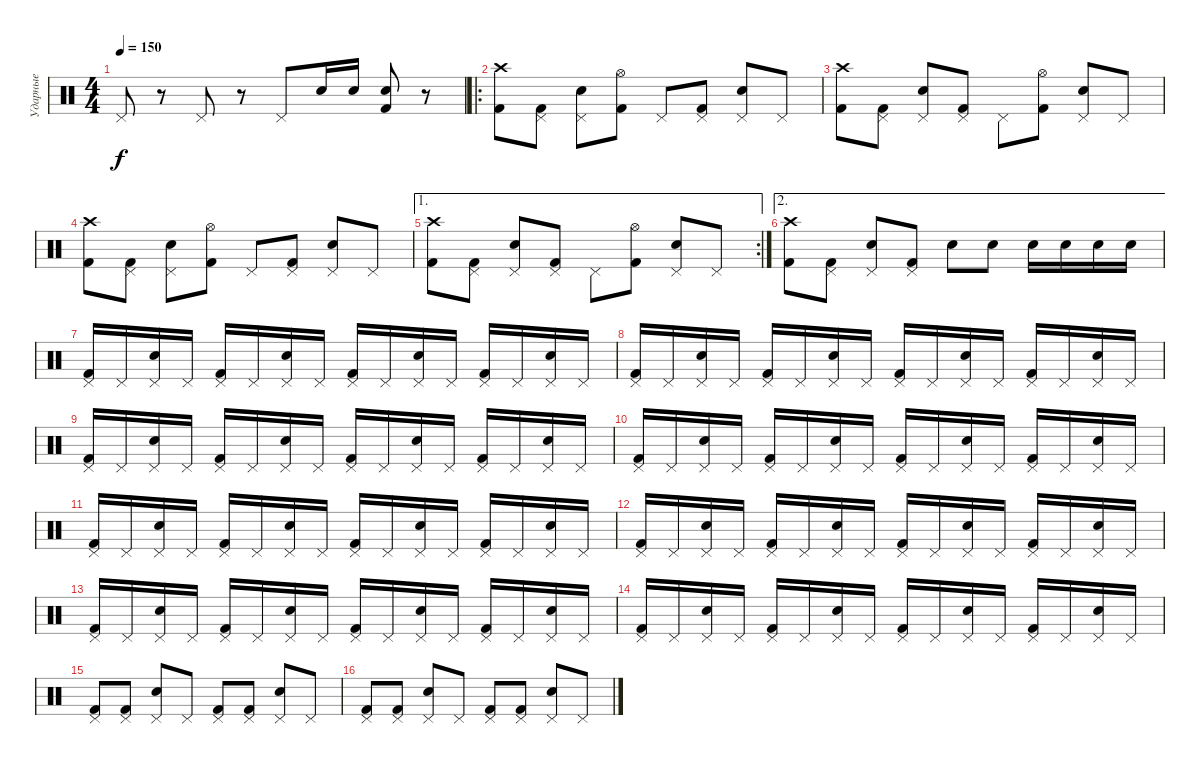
\track ("Ударные" "Ударные") {instrument percussion}
\staff {score}
\articulation defaults
\ts (4 4)
\tempo 150
\clef neutral
\ks c "Pedal Hi-Hat (hit)".8{dy f}
r.8 "Pedal Hi-Hat (hit)".8 r.8 "Pedal Hi-Hat (hit)".8 "Electric Snare (hit)".16 "Electric Snare (hit)".16 ("Electric Snare (hit)" "Kick (hit) 2").8 r.8 |
\ro
("Kick (hit) 2" "Crash high (hit)").8 ("Kick (hit) 2" "Pedal Hi-Hat (hit)").8 ("Electric Snare (hit)" "Pedal Hi-Hat (hit)").8 ("Kick (hit) 2" "Hi-Hat (open)").8 "Pedal Hi-Hat (hit)".8 ("Kick (hit) 2" "Pedal Hi-Hat (hit)").8 ("Electric Snare (hit)" "Pedal Hi-Hat (hit)").8 "Pedal Hi-Hat (hit)".8 |
("Kick (hit) 2" "Crash high (hit)").8 ("Kick (hit) 2" "Pedal Hi-Hat (hit)").8 ("Electric Snare (hit)" "Pedal Hi-Hat (hit)").8 ("Kick (hit) 2" "Pedal Hi-Hat (hit)").8 "Pedal Hi-Hat (hit)".8 ("Kick (hit) 2" "Hi-Hat (open)").8 ("Electric Snare (hit)" "Pedal Hi-Hat (hit)").8 "Pedal Hi-Hat (hit)".8 |
("Kick (hit) 2" "Crash high (hit)").8 ("Kick (hit) 2" "Pedal Hi-Hat (hit)").8 ("Electric Snare (hit)" "Pedal Hi-Hat (hit)").8 ("Kick (hit) 2" "Hi-Hat (open)").8 "Pedal Hi-Hat (hit)".8 ("Kick (hit) 2" "Pedal Hi-Hat (hit)").8 ("Electric Snare (hit)" "Pedal Hi-Hat (hit)").8 "Pedal Hi-Hat (hit)".8 |
\ae 1
\rc 2
("Kick (hit) 2" "Crash high (hit)").8 ("Kick (hit) 2" "Pedal Hi-Hat (hit)").8 ("Electric Snare (hit)" "Pedal Hi-Hat (hit)").8 ("Kick (hit) 2" "Pedal Hi-Hat (hit)").8 "Pedal Hi-Hat (hit)".8 ("Kick (hit) 2" "Hi-Hat (open)").8 ("Electric Snare (hit)" "Pedal Hi-Hat (hit)").8 "Pedal Hi-Hat (hit)".8 |
\ae 2
("Kick (hit) 2" "Crash high (hit)").8 ("Kick (hit) 2" "Pedal Hi-Hat (hit)").8 ("Electric Snare (hit)" "Pedal Hi-Hat (hit)").8 ("Kick (hit) 2" "Pedal Hi-Hat (hit)").8 "Electric Snare (hit)".8 "Electric Snare (hit)".8 "Electric Snare (hit)".16 "Electric Snare (hit)".16 "Electric Snare (hit)".16 "Electric Snare (hit)".16 |
("Kick (hit) 2" "Pedal Hi-Hat (hit)").16 "Pedal Hi-Hat (hit)".16 ("Electric Snare (hit)" "Pedal Hi-Hat (hit)").16 "Pedal Hi-Hat (hit)".16 ("Kick (hit) 2" "Pedal Hi-Hat (hit)").16 "Pedal Hi-Hat (hit)".16 ("Electric Snare (hit)" "Pedal Hi-Hat (hit)").16 "Pedal Hi-Hat (hit)".16 ("Kick (hit) 2" "Pedal Hi-Hat (hit)").16 "Pedal Hi-Hat (hit)".16 ("Electric Snare (hit)" "Pedal Hi-Hat (hit)").16 "Pedal Hi-Hat (hit)".16 ("Kick (hit) 2" "Pedal Hi-Hat (hit)").16 "Pedal Hi-Hat (hit)".16 ("Electric Snare (hit)" "Pedal Hi-Hat (hit)").16 "Pedal Hi-Hat (hit)".16 |
("Kick (hit) 2" "Pedal Hi-Hat (hit)").16 "Pedal Hi-Hat (hit)".16 ("Electric Snare (hit)" "Pedal Hi-Hat (hit)").16 "Pedal Hi-Hat (hit)".16 ("Kick (hit) 2" "Pedal Hi-Hat (hit)").16 "Pedal Hi-Hat (hit)".16 ("Electric Snare (hit)" "Pedal Hi-Hat (hit)").16 "Pedal Hi-Hat (hit)".16 ("Kick (hit) 2" "Pedal Hi-Hat (hit)").16 "Pedal Hi-Hat (hit)".16 ("Electric Snare (hit)" "Pedal Hi-Hat (hit)").16 "Pedal Hi-Hat (hit)".16 ("Kick (hit) 2" "Pedal Hi-Hat (hit)").16 "Pedal Hi-Hat (hit)".16 ("Electric Snare (hit)" "Pedal Hi-Hat (hit)").16 "Pedal Hi-Hat (hit)".16 |
("Kick (hit) 2" "Pedal Hi-Hat (hit)").16 "Pedal Hi-Hat (hit)".16 ("Electric Snare (hit)" "Pedal Hi-Hat (hit)").16 "Pedal Hi-Hat (hit)".16 ("Kick (hit) 2" "Pedal Hi-Hat (hit)").16 "Pedal Hi-Hat (hit)".16 ("Electric Snare (hit)" "Pedal Hi-Hat (hit)").16 "Pedal Hi-Hat (hit)".16 ("Kick (hit) 2" "Pedal Hi-Hat (hit)").16 "Pedal Hi-Hat (hit)".16 ("Electric Snare (hit)" "Pedal Hi-Hat (hit)").16 "Pedal Hi-Hat (hit)".16 ("Kick (hit) 2" "Pedal Hi-Hat (hit)").16 "Pedal Hi-Hat (hit)".16 ("Electric Snare (hit)" "Pedal Hi-Hat (hit)").16 "Pedal Hi-Hat (hit)".16 |
("Kick (hit) 2" "Pedal Hi-Hat (hit)").16 "Pedal Hi-Hat (hit)".16 ("Electric Snare (hit)" "Pedal Hi-Hat (hit)").16 "Pedal Hi-Hat (hit)".16 ("Kick (hit) 2" "Pedal Hi-Hat (hit)").16 "Pedal Hi-Hat (hit)".16 ("Electric Snare (hit)" "Pedal Hi-Hat (hit)").16 "Pedal Hi-Hat (hit)".16 ("Kick (hit) 2" "Pedal Hi-Hat (hit)").16 "Pedal Hi-Hat (hit)".16 ("Electric Snare (hit)" "Pedal Hi-Hat (hit)").16 "Pedal Hi-Hat (hit)".16 ("Kick (hit) 2" "Pedal Hi-Hat (hit)").16 "Pedal Hi-Hat (hit)".16 ("Electric Snare (hit)" "Pedal Hi-Hat (hit)").16 "Pedal Hi-Hat (hit)".16 |
("Kick (hit) 2" "Pedal Hi-Hat (hit)").16 "Pedal Hi-Hat (hit)".16 ("Electric Snare (hit)" "Pedal Hi-Hat (hit)").16 "Pedal Hi-Hat (hit)".16 ("Kick (hit) 2" "Pedal Hi-Hat (hit)").16 "Pedal Hi-Hat (hit)".16 ("Electric Snare (hit)" "Pedal Hi-Hat (hit)").16 "Pedal Hi-Hat (hit)".16 ("Kick (hit) 2" "Pedal Hi-Hat (hit)").16 "Pedal Hi-Hat (hit)".16 ("Electric Snare (hit)" "Pedal Hi-Hat (hit)").16 "Pedal Hi-Hat (hit)".16 ("Kick (hit) 2" "Pedal Hi-Hat (hit)").16 "Pedal Hi-Hat (hit)".16 ("Electric Snare (hit)" "Pedal Hi-Hat (hit)").16 "Pedal Hi-Hat (hit)".16 |
("Kick (hit) 2" "Pedal Hi-Hat (hit)").16 "Pedal Hi-Hat (hit)".16 ("Electric Snare (hit)" "Pedal Hi-Hat (hit)").16 "Pedal Hi-Hat (hit)".16 ("Kick (hit) 2" "Pedal Hi-Hat (hit)").16 "Pedal Hi-Hat (hit)".16 ("Electric Snare (hit)" "Pedal Hi-Hat (hit)").16 "Pedal Hi-Hat (hit)".16 ("Kick (hit) 2" "Pedal Hi-Hat (hit)").16 "Pedal Hi-Hat (hit)".16 ("Electric Snare (hit)" "Pedal Hi-Hat (hit)").16 "Pedal Hi-Hat (hit)".16 ("Kick (hit) 2" "Pedal Hi-Hat (hit)").16 "Pedal Hi-Hat (hit)".16 ("Electric Snare (hit)" "Pedal Hi-Hat (hit)").16 "Pedal Hi-Hat (hit)".16 |
("Kick (hit) 2" "Pedal Hi-Hat (hit)").16 "Pedal Hi-Hat (hit)".16 ("Electric Snare (hit)" "Pedal Hi-Hat (hit)").16 "Pedal Hi-Hat (hit)".16 ("Kick (hit) 2" "Pedal Hi-Hat (hit)").16 "Pedal Hi-Hat (hit)".16 ("Electric Snare (hit)" "Pedal Hi-Hat (hit)").16 "Pedal Hi-Hat (hit)".16 ("Kick (hit) 2" "Pedal Hi-Hat (hit)").16 "Pedal Hi-Hat (hit)".16 ("Electric Snare (hit)" "Pedal Hi-Hat (hit)").16 "Pedal Hi-Hat (hit)".16 ("Kick (hit) 2" "Pedal Hi-Hat (hit)").16 "Pedal Hi-Hat (hit)".16 ("Electric Snare (hit)" "Pedal Hi-Hat (hit)").16 "Pedal Hi-Hat (hit)".16 |
("Kick (hit) 2" "Pedal Hi-Hat (hit)").16 "Pedal Hi-Hat (hit)".16 ("Electric Snare (hit)" "Pedal Hi-Hat (hit)").16 "Pedal Hi-Hat (hit)".16 ("Kick (hit) 2" "Pedal Hi-Hat (hit)").16 "Pedal Hi-Hat (hit)".16 ("Electric Snare (hit)" "Pedal Hi-Hat (hit)").16 "Pedal Hi-Hat (hit)".16 ("Kick (hit) 2" "Pedal Hi-Hat (hit)").16 "Pedal Hi-Hat (hit)".16 ("Electric Snare (hit)" "Pedal Hi-Hat (hit)").16 "Pedal Hi-Hat (hit)".16 ("Kick (hit) 2" "Pedal Hi-Hat (hit)").16 "Pedal Hi-Hat (hit)".16 ("Electric Snare (hit)" "Pedal Hi-Hat (hit)").16 "Pedal Hi-Hat (hit)".16 |
("Kick (hit) 2" "Pedal Hi-Hat (hit)").8 ("Kick (hit) 2" "Pedal Hi-Hat (hit)").8 ("Electric Snare (hit)" "Pedal Hi-Hat (hit)").8 "Pedal Hi-Hat (hit)".8 ("Kick (hit) 2" "Pedal Hi-Hat (hit)").8 ("Kick (hit) 2" "Pedal Hi-Hat (hit)").8 ("Electric Snare (hit)" "Pedal Hi-Hat (hit)").8 "Pedal Hi-Hat (hit)".8 |
("Kick (hit) 2" "Pedal Hi-Hat (hit)").8 ("Kick (hit) 2" "Pedal Hi-Hat (hit)").8 ("Electric Snare (hit)" "Pedal Hi-Hat (hit)").8 "Pedal Hi-Hat (hit)".8 ("Kick (hit) 2" "Pedal Hi-Hat (hit)").8 ("Kick (hit) 2" "Pedal Hi-Hat (hit)").8 ("Electric Snare (hit)" "Pedal Hi-Hat (hit)").8 "Pedal Hi-Hat (hit)".8
